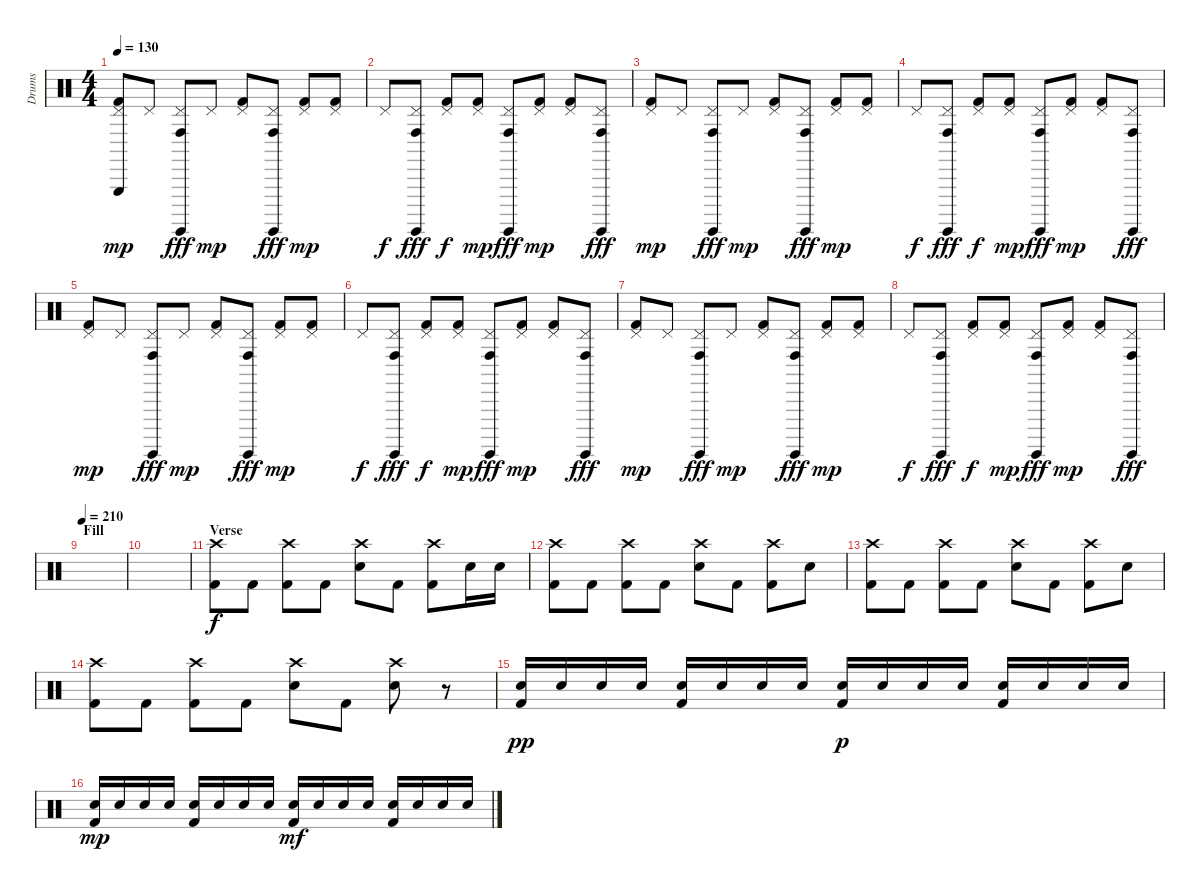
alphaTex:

\track ("Drums" "Drums") {instrument percussion}
\staff {score}
\articulation defaults
\ts (4 4)
\tempo 130
\clef neutral
\ks c
("Pedal Hi-Hat (hit)" "Triangle (hit)" "Kick (hit) 2").8{dy mp} "Pedal Hi-Hat (hit)".8 ("Pedal Hi-Hat (hit)" "Surdo (hit)" "Conga high (hit)").8{dy fff} "Pedal Hi-Hat (hit)".8{dy mp} ("Pedal Hi-Hat (hit)" "Kick (hit) 2").8 ("Pedal Hi-Hat (hit)" "Surdo (hit)" "Conga high (hit)").8{dy fff} ("Pedal Hi-Hat (hit)" "Kick (hit) 2").8{dy mp} ("Pedal Hi-Hat (hit)" "Kick (hit) 2").8 |
"Pedal Hi-Hat (hit)".8{dy f} ("Pedal Hi-Hat (hit)" "Surdo (hit)" "Conga high (hit)").8{dy fff} ("Pedal Hi-Hat (hit)" "Kick (hit) 2").8{dy f} ("Pedal Hi-Hat (hit)" "Kick (hit) 2").8{dy mp} ("Pedal Hi-Hat (hit)" "Surdo (hit)" "Conga high (hit)").8{dy fff} ("Pedal Hi-Hat (hit)" "Kick (hit) 2").8{dy mp} ("Pedal Hi-Hat (hit)" "Kick (hit) 2").8 ("Pedal Hi-Hat (hit)" "Surdo (hit)" "Conga high (hit)").8{dy fff} |
("Pedal Hi-Hat (hit)" "Kick (hit) 2").8{dy mp} "Pedal Hi-Hat (hit)".8 ("Pedal Hi-Hat (hit)" "Surdo (hit)" "Conga high (hit)").8{dy fff} "Pedal Hi-Hat (hit)".8{dy mp} ("Pedal Hi-Hat (hit)" "Kick (hit) 2").8 ("Pedal Hi-Hat (hit)" "Surdo (hit)" "Conga high (hit)").8{dy fff} ("Pedal Hi-Hat (hit)" "Kick (hit) 2").8{dy mp} ("Pedal Hi-Hat (hit)" "Kick (hit) 2").8 |
"Pedal Hi-Hat (hit)".8{dy f} ("Pedal Hi-Hat (hit)" "Surdo (hit)" "Conga high (hit)").8{dy fff} ("Pedal Hi-Hat (hit)" "Kick (hit) 2").8{dy f} ("Pedal Hi-Hat (hit)" "Kick (hit) 2").8{dy mp} ("Pedal Hi-Hat (hit)" "Surdo (hit)" "Conga high (hit)").8{dy fff} ("Pedal Hi-Hat (hit)" "Kick (hit) 2").8{dy mp} ("Pedal Hi-Hat (hit)" "Kick (hit) 2").8 ("Pedal Hi-Hat (hit)" "Surdo (hit)" "Conga high (hit)").8{dy fff} |
("Pedal Hi-Hat (hit)" "Kick (hit) 2").8{dy mp} "Pedal Hi-Hat (hit)".8 ("Pedal Hi-Hat (hit)" "Surdo (hit)" "Conga high (hit)").8{dy fff} "Pedal Hi-Hat (hit)".8{dy mp} ("Pedal Hi-Hat (hit)" "Kick (hit) 2").8 ("Pedal Hi-Hat (hit)" "Surdo (hit)" "Conga high (hit)").8{dy fff} ("Pedal Hi-Hat (hit)" "Kick (hit) 2").8{dy mp} ("Pedal Hi-Hat (hit)" "Kick (hit) 2").8 |
"Pedal Hi-Hat (hit)".8{dy f} ("Pedal Hi-Hat (hit)" "Surdo (hit)" "Conga high (hit)").8{dy fff} ("Pedal Hi-Hat (hit)" "Kick (hit) 2").8{dy f} ("Pedal Hi-Hat (hit)" "Kick (hit) 2").8{dy mp} ("Pedal Hi-Hat (hit)" "Surdo (hit)" "Conga high (hit)").8{dy fff} ("Pedal Hi-Hat (hit)" "Kick (hit) 2").8{dy mp} ("Pedal Hi-Hat (hit)" "Kick (hit) 2").8 ("Pedal Hi-Hat (hit)" "Surdo (hit)" "Conga high (hit)").8{dy fff} |
("Pedal Hi-Hat (hit)" "Kick (hit) 2").8{dy mp} "Pedal Hi-Hat (hit)".8 ("Pedal Hi-Hat (hit)" "Surdo (hit)" "Conga high (hit)").8{dy fff} "Pedal Hi-Hat (hit)".8{dy mp} ("Pedal Hi-Hat (hit)" "Kick (hit) 2").8 ("Pedal Hi-Hat (hit)" "Surdo (hit)" "Conga high (hit)").8{dy fff} ("Pedal Hi-Hat (hit)" "Kick (hit) 2").8{dy mp} ("Pedal Hi-Hat (hit)" "Kick (hit) 2").8 |
"Pedal Hi-Hat (hit)".8{dy f} ("Pedal Hi-Hat (hit)" "Surdo (hit)" "Conga high (hit)").8{dy fff} ("Pedal Hi-Hat (hit)" "Kick (hit) 2").8{dy f} ("Pedal Hi-Hat (hit)" "Kick (hit) 2").8{dy mp} ("Pedal Hi-Hat (hit)" "Surdo (hit)" "Conga high (hit)").8{dy fff} ("Pedal Hi-Hat (hit)" "Kick (hit) 2").8{dy mp} ("Pedal Hi-Hat (hit)" "Kick (hit) 2").8 ("Pedal Hi-Hat (hit)" "Surdo (hit)" "Conga high (hit)").8{dy fff} |
\section ("" "Fill")
\tempo 210
|
|
\section ("" "Verse")
("Crash high (hit)" "Kick (hit) 2").8{dy f} "Kick (hit) 2".8 ("Crash high (hit)" "Kick (hit) 2").8 "Kick (hit) 2".8 ("Crash high (hit)" "Electric Snare (hit)").8 "Kick (hit) 2".8 ("Crash high (hit)" "Kick (hit) 2").8 "Electric Snare (hit)".16 "Electric Snare (hit)".16 |
("Crash high (hit)" "Kick (hit) 2").8 "Kick (hit) 2".8 ("Crash high (hit)" "Kick (hit) 2").8 "Kick (hit) 2".8 ("Crash high (hit)" "Electric Snare (hit)").8 "Kick (hit) 2".8 ("Crash high (hit)" "Kick (hit) 2").8 "Electric Snare (hit)".8 |
("Crash high (hit)" "Kick (hit) 2").8 "Kick (hit) 2".8 ("Crash high (hit)" "Kick (hit) 2").8 "Kick (hit) 2".8 ("Crash high (hit)" "Electric Snare (hit)").8 "Kick (hit) 2".8 ("Crash high (hit)" "Kick (hit) 2").8 "Electric Snare (hit)".8 |
("Crash high (hit)" "Kick (hit) 2").8 "Kick (hit) 2".8 ("Crash high (hit)" "Kick (hit) 2").8 "Kick (hit) 2".8 ("Crash high (hit)" "Electric Snare (hit)").8 "Kick (hit) 2".8 ("Crash high (hit)" "Electric Snare (hit)").8 r.8 |
("Electric Snare (hit)" "Kick (hit) 2").16{dy pp} "Electric Snare (hit)".16 "Electric Snare (hit)".16 "Electric Snare (hit)".16 ("Electric Snare (hit)" "Kick (hit) 2").16 "Electric Snare (hit)".16 "Electric Snare (hit)".16 "Electric Snare (hit)".16 ("Electric Snare (hit)" "Kick (hit) 2").16{dy p} "Electric Snare (hit)".16 "Electric Snare (hit)".16 "Electric Snare (hit)".16 ("Electric Snare (hit)" "Kick (hit) 2").16 "Electric Snare (hit)".16 "Electric Snare (hit)".16 "Electric Snare (hit)".16 |
("Electric Snare (hit)" "Kick (hit) 2").16{dy mp} "Electric Snare (hit)".16 "Electric Snare (hit)".16 "Electric Snare (hit)".16 ("Electric Snare (hit)" "Kick (hit) 2").16 "Electric Snare (hit)".16 "Electric Snare (hit)".16 "Electric Snare (hit)".16 ("Electric Snare (hit)" "Kick (hit) 2").16{dy mf} "Electric Snare (hit)".16 "Electric Snare (hit)".16 "Electric Snare (hit)".16 ("Electric Snare (hit)" "Kick (hit) 2").16 "Electric Snare (hit)".16 "Electric Snare (hit)".16 "Electric Snare (hit)".16
